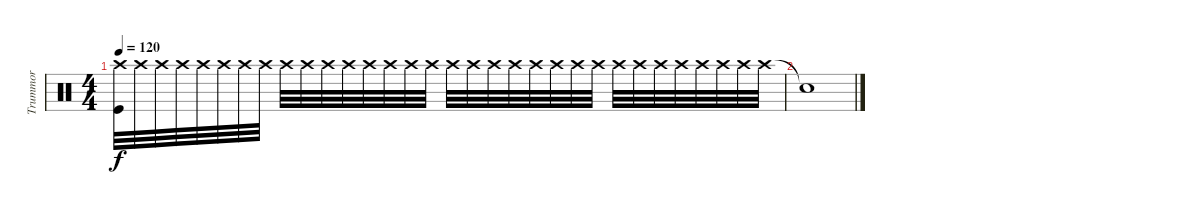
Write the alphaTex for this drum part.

\track ("Trummor" "Trummor") {instrument percussion}
\staff {score}
\articulation defaults
\ts (4 4)
\tempo 120
\clef neutral
\ks c
("Crash high (hit)" "Kick (hit)").32{dy f} "Crash high (hit)".32{volume 8} "Crash high (hit)".32 "Crash high (hit)".32 "Crash high (hit)".32 "Crash high (hit)".32 "Crash high (hit)".32 "Crash high (hit)".32 "Crash high (hit)".32 "Crash high (hit)".32 "Crash high (hit)".32 "Crash high (hit)".32 "Crash high (hit)".32 "Crash high (hit)".32 "Crash high (hit)".32 "Crash high (hit)".32 "Crash high (hit)".32 "Crash high (hit)".32 "Crash high (hit)".32 "Crash high (hit)".32 "Crash high (hit)".32 "Crash high (hit)".32 "Crash high (hit)".32 "Crash high (hit)".32 "Crash high (hit)".32 "Crash high (hit)".32 "Crash high (hit)".32 "Crash high (hit)".32 "Crash high (hit)".32 "Crash high (hit)".32 "Crash high (hit)".32 "Crash high (hit)".32 |
"Snare (hit)"{t}.1
